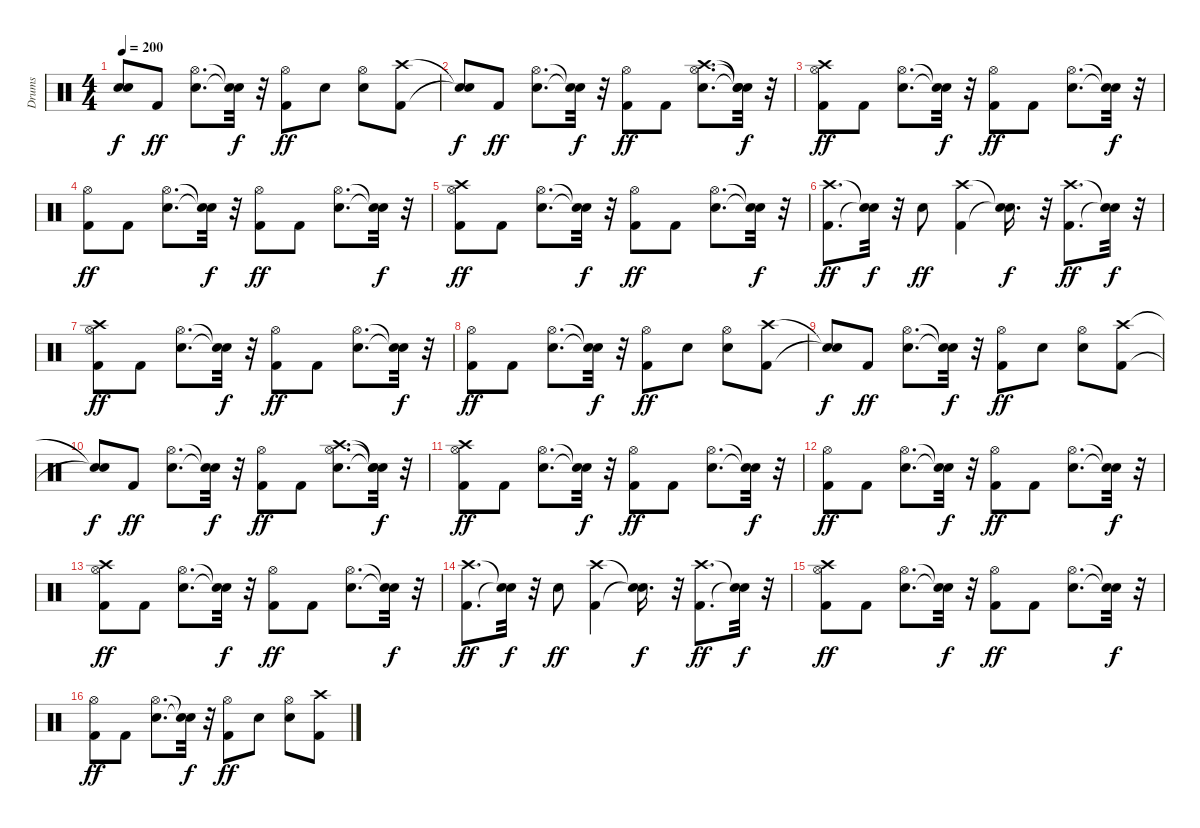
\track ("Drums" "Drums") {instrument percussion}
\staff {score}
\articulation defaults
\ts (4 4)
\tempo 200
\clef neutral
\ks c
("Snare (hit)"{t} "Snare (hit)"{t}).8{dy f} "Kick (hit) 2".8{dy ff} ("Snare (hit) 2" "Hi-Hat (open)").8{d} ("Snare (hit)"{t} "Snare (hit)"{t}).32{dy f} r.32 ("Kick (hit) 2" "Hi-Hat (open)").8{dy ff} "Snare (hit) 2".8 ("Snare (hit) 2" "Hi-Hat (open)").8 ("Kick (hit) 2" "Crash high (hit)").8 |
("Snare (hit)"{t} "Snare (hit)"{t}).8{dy f} "Kick (hit) 2".8{dy ff} ("Snare (hit) 2" "Hi-Hat (open)").8{d} ("Snare (hit)"{t} "Snare (hit)"{t}).32{dy f} r.32 ("Kick (hit) 2" "Hi-Hat (open)").8{dy ff} "Kick (hit) 2".8 ("Snare (hit) 2" "Hi-Hat (open)" "Crash high (hit)").8{d} ("Snare (hit)"{t} "Snare (hit)"{t} "Snare (hit)"{t}).32{dy f} r.32 |
("Kick (hit) 2" "Hi-Hat (open)" "Crash high (hit)").8{dy ff} "Kick (hit) 2".8 ("Snare (hit) 2" "Hi-Hat (open)").8{d} ("Snare (hit)"{t} "Snare (hit)"{t}).32{dy f} r.32 ("Kick (hit) 2" "Hi-Hat (open)").8{dy ff} "Kick (hit) 2".8 ("Snare (hit) 2" "Hi-Hat (open)").8{d} ("Snare (hit)"{t} "Snare (hit)"{t}).32{dy f} r.32 |
("Kick (hit) 2" "Hi-Hat (open)").8{dy ff} "Kick (hit) 2".8 ("Snare (hit) 2" "Hi-Hat (open)").8{d} ("Snare (hit)"{t} "Snare (hit)"{t}).32{dy f} r.32 ("Kick (hit) 2" "Hi-Hat (open)").8{dy ff} "Kick (hit) 2".8 ("Snare (hit) 2" "Hi-Hat (open)").8{d} ("Snare (hit)"{t} "Snare (hit)"{t}).32{dy f} r.32 |
("Kick (hit) 2" "Hi-Hat (open)" "Crash high (hit)").8{dy ff} "Kick (hit) 2".8 ("Snare (hit) 2" "Hi-Hat (open)").8{d} ("Snare (hit)"{t} "Snare (hit)"{t}).32{dy f} r.32 ("Kick (hit) 2" "Hi-Hat (open)").8{dy ff} "Kick (hit) 2".8 ("Snare (hit) 2" "Hi-Hat (open)").8{d} ("Snare (hit)"{t} "Snare (hit)"{t}).32{dy f} r.32 |
("Kick (hit) 2" "Crash high (hit)").8{d dy ff} ("Snare (hit)"{t} "Snare (hit)"{t}).32{dy f} r.32 "Snare (hit) 2".8{dy ff} ("Kick (hit) 2" "Crash high (hit)").4 ("Snare (hit)"{t} "Snare (hit)"{t}).16{d dy f} r.32 ("Kick (hit) 2" "Crash high (hit)").8{d dy ff} ("Snare (hit)"{t} "Snare (hit)"{t}).32{dy f} r.32 |
("Kick (hit) 2" "Hi-Hat (open)" "Crash high (hit)").8{dy ff} "Kick (hit) 2".8 ("Snare (hit) 2" "Hi-Hat (open)").8{d} ("Snare (hit)"{t} "Snare (hit)"{t}).32{dy f} r.32 ("Kick (hit) 2" "Hi-Hat (open)").8{dy ff} "Kick (hit) 2".8 ("Snare (hit) 2" "Hi-Hat (open)").8{d} ("Snare (hit)"{t} "Snare (hit)"{t}).32{dy f} r.32 |
("Kick (hit) 2" "Hi-Hat (open)").8{dy ff} "Kick (hit) 2".8 ("Snare (hit) 2" "Hi-Hat (open)").8{d} ("Snare (hit)"{t} "Snare (hit)"{t}).32{dy f} r.32 ("Kick (hit) 2" "Hi-Hat (open)").8{dy ff} "Snare (hit) 2".8 ("Snare (hit) 2" "Hi-Hat (open)").8 ("Kick (hit) 2" "Crash high (hit)").8 |
("Snare (hit)"{t} "Snare (hit)"{t}).8{dy f} "Kick (hit) 2".8{dy ff} ("Snare (hit) 2" "Hi-Hat (open)").8{d} ("Snare (hit)"{t} "Snare (hit)"{t}).32{dy f} r.32 ("Kick (hit) 2" "Hi-Hat (open)").8{dy ff} "Snare (hit) 2".8 ("Snare (hit) 2" "Hi-Hat (open)").8 ("Kick (hit) 2" "Crash high (hit)").8 |
("Snare (hit)"{t} "Snare (hit)"{t}).8{dy f} "Kick (hit) 2".8{dy ff} ("Snare (hit) 2" "Hi-Hat (open)").8{d} ("Snare (hit)"{t} "Snare (hit)"{t}).32{dy f} r.32 ("Kick (hit) 2" "Hi-Hat (open)").8{dy ff} "Kick (hit) 2".8 ("Snare (hit) 2" "Hi-Hat (open)" "Crash high (hit)").8{d} ("Snare (hit)"{t} "Snare (hit)"{t} "Snare (hit)"{t}).32{dy f} r.32 |
("Kick (hit) 2" "Hi-Hat (open)" "Crash high (hit)").8{dy ff} "Kick (hit) 2".8 ("Snare (hit) 2" "Hi-Hat (open)").8{d} ("Snare (hit)"{t} "Snare (hit)"{t}).32{dy f} r.32 ("Kick (hit) 2" "Hi-Hat (open)").8{dy ff} "Kick (hit) 2".8 ("Snare (hit) 2" "Hi-Hat (open)").8{d} ("Snare (hit)"{t} "Snare (hit)"{t}).32{dy f} r.32 |
("Kick (hit) 2" "Hi-Hat (open)").8{dy ff} "Kick (hit) 2".8 ("Snare (hit) 2" "Hi-Hat (open)").8{d} ("Snare (hit)"{t} "Snare (hit)"{t}).32{dy f} r.32 ("Kick (hit) 2" "Hi-Hat (open)").8{dy ff} "Kick (hit) 2".8 ("Snare (hit) 2" "Hi-Hat (open)").8{d} ("Snare (hit)"{t} "Snare (hit)"{t}).32{dy f} r.32 |
("Kick (hit) 2" "Hi-Hat (open)" "Crash high (hit)").8{dy ff} "Kick (hit) 2".8 ("Snare (hit) 2" "Hi-Hat (open)").8{d} ("Snare (hit)"{t} "Snare (hit)"{t}).32{dy f} r.32 ("Kick (hit) 2" "Hi-Hat (open)").8{dy ff} "Kick (hit) 2".8 ("Snare (hit) 2" "Hi-Hat (open)").8{d} ("Snare (hit)"{t} "Snare (hit)"{t}).32{dy f} r.32 |
("Kick (hit) 2" "Crash high (hit)").8{d dy ff} ("Snare (hit)"{t} "Snare (hit)"{t}).32{dy f} r.32 "Snare (hit) 2".8{dy ff} ("Kick (hit) 2" "Crash high (hit)").4 ("Snare (hit)"{t} "Snare (hit)"{t}).16{d dy f} r.32 ("Kick (hit) 2" "Crash high (hit)").8{d dy ff} ("Snare (hit)"{t} "Snare (hit)"{t}).32{dy f} r.32 |
("Kick (hit) 2" "Hi-Hat (open)" "Crash high (hit)").8{dy ff} "Kick (hit) 2".8 ("Snare (hit) 2" "Hi-Hat (open)").8{d} ("Snare (hit)"{t} "Snare (hit)"{t}).32{dy f} r.32 ("Kick (hit) 2" "Hi-Hat (open)").8{dy ff} "Kick (hit) 2".8 ("Snare (hit) 2" "Hi-Hat (open)").8{d} ("Snare (hit)"{t} "Snare (hit)"{t}).32{dy f} r.32 |
("Kick (hit) 2" "Hi-Hat (open)").8{dy ff} "Kick (hit) 2".8 ("Snare (hit) 2" "Hi-Hat (open)").8{d} ("Snare (hit)"{t} "Snare (hit)"{t}).32{dy f} r.32 ("Kick (hit) 2" "Hi-Hat (open)").8{dy ff} "Snare (hit) 2".8 ("Snare (hit) 2" "Hi-Hat (open)").8 ("Kick (hit) 2" "Crash high (hit)").8
